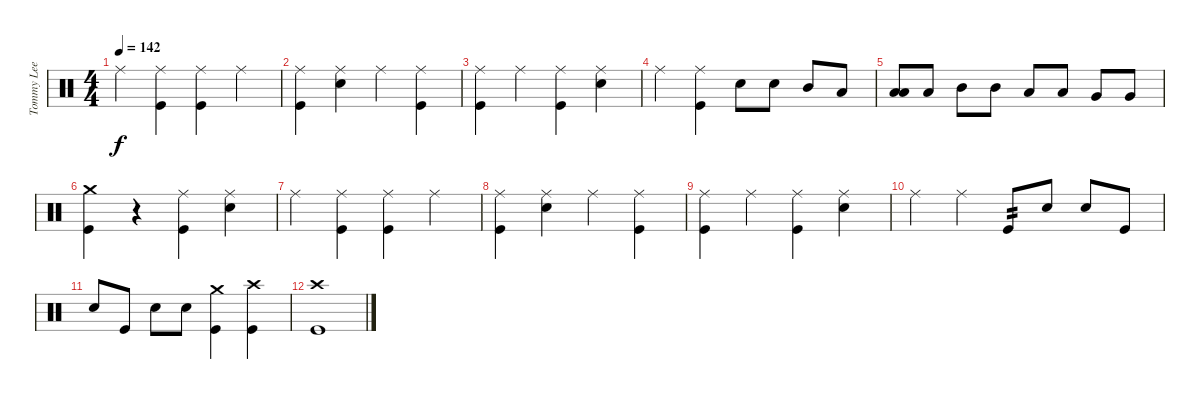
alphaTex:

\track ("Tommy Lee" "Tommy Lee") {instrument percussion}
\staff {score}
\articulation defaults
\ts (4 4)
\tempo 142
\clef neutral
\ks c "Ride (middle)".4{dy f}
("Ride (middle)" "Kick (hit)").4 ("Ride (middle)" "Kick (hit)").4 "Ride (middle)".4 |
("Ride (middle)" "Kick (hit)").4 ("Ride (middle)" "Snare (hit) 2").4 "Ride (middle)".4 ("Ride (middle)" "Kick (hit)").4 |
("Ride (middle)" "Kick (hit)").4 "Ride (middle)".4 ("Ride (middle)" "Kick (hit)").4 ("Ride (middle)" "Snare (hit) 2").4 |
"Ride (middle)".4 ("Ride (middle)" "Kick (hit)").4 "Snare (hit) 2".8 "Snare (hit) 2".8 "Mid Tom (hit)".8 "Low Tom (hit)".8 |
("Low Tom (hit)" "Low Tom (hit)").8 "Low Tom (hit)".8 "Mid Tom (hit)".8 "Mid Tom (hit)".8 "Low Tom (hit)".8 "Low Tom (hit)".8 "Very Low Tom (hit)".8 "Very Low Tom (hit)".8 |
("Crash medium (hit)" "Kick (hit)").4 r.4 ("Ride (middle)" "Kick (hit)").4 ("Ride (middle)" "Snare (hit) 2").4 |
"Ride (middle)".4 ("Ride (middle)" "Kick (hit)").4 ("Ride (middle)" "Kick (hit)").4 "Ride (middle)".4 |
("Ride (middle)" "Kick (hit)").4 ("Ride (middle)" "Snare (hit) 2").4 "Ride (middle)".4 ("Ride (middle)" "Kick (hit)").4 |
("Ride (middle)" "Kick (hit)").4 "Ride (middle)".4 ("Ride (middle)" "Kick (hit)").4 ("Ride (middle)" "Snare (hit) 2").4 |
"Ride (middle)".4 "Ride (middle)".4 "Kick (hit)".8{tp 2} "Snare (hit) 2".8 "Snare (hit) 2".8 "Kick (hit)".8 |
"Snare (hit) 2".8 "Kick (hit)".8 "Snare (hit) 2".8 "Snare (hit) 2".8 ("Crash medium (hit)" "Kick (hit)").4 ("Crash high (hit)" "Kick (hit)").4 |
("Crash high (hit)" "Kick (hit)").1
